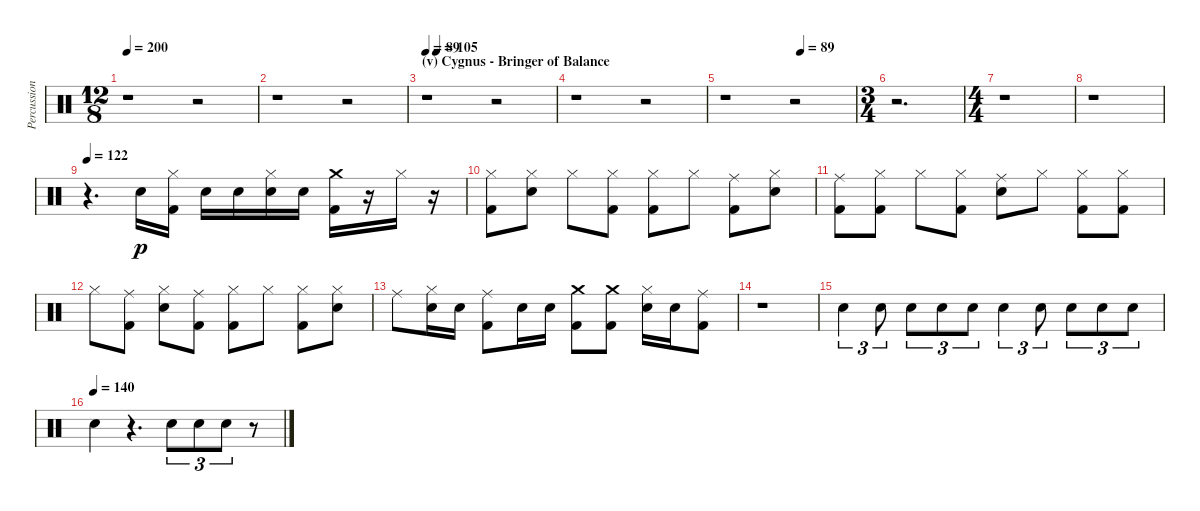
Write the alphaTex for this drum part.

\track ("Percussion" "Percussion") {instrument percussion}
\staff {score}
\articulation defaults
\ts (12 8)
\tempo 200
\clef neutral
\ks c
r.1{dy f} r.2 |
r.1 r.2 |
\section ("" "(v) Cygnus - Bringer of Balance")
\tempo 89
\tempo (105 0.08333333333333333)
r.1 r.2 |
r.1 r.2 |
\tempo (89 0.5833333333333334)
r.1 r.2 |
\ts (3 4)
r.2{d} |
\ts (4 4)
r.1 |
r.1 |
\tempo 122
r.4{d} "Electric Snare (hit)".16{dy p} ("Kick (hit) 2" "Hi-Hat (closed)").16 "Electric Snare (hit)".16 "Electric Snare (hit)".16 ("Electric Snare (hit)" "Hi-Hat (closed)").16 "Electric Snare (hit)".16 ("Kick (hit) 2" "Crash medium (hit)").16 r.16 "Hi-Hat (closed)".16 r.16 |
("Kick (hit) 2" "Hi-Hat (closed)").8 ("Electric Snare (hit)" "Hi-Hat (closed)").8 "Hi-Hat (closed)".8 ("Kick (hit) 2" "Hi-Hat (closed)").8 ("Kick (hit) 2" "Hi-Hat (closed)").8 "Hi-Hat (closed)".8 ("Kick (hit) 2" "Ride (middle)").8 ("Electric Snare (hit)" "Hi-Hat (closed)").8 |
("Kick (hit) 2" "Ride (middle)").8 ("Kick (hit) 2" "Hi-Hat (closed)").8 "Hi-Hat (closed)".8 ("Kick (hit) 2" "Hi-Hat (closed)").8 ("Electric Snare (hit)" "Ride (middle)").8 "Hi-Hat (closed)".8 ("Kick (hit) 2" "Hi-Hat (closed)").8 ("Kick (hit) 2" "Hi-Hat (closed)").8 |
"Hi-Hat (closed)".8 ("Kick (hit) 2" "Ride (middle)").8 ("Electric Snare (hit)" "Hi-Hat (closed)").8 ("Kick (hit) 2" "Ride (middle)").8 ("Kick (hit) 2" "Hi-Hat (closed)").8 "Hi-Hat (closed)".8 ("Kick (hit) 2" "Hi-Hat (closed)").8 ("Electric Snare (hit)" "Hi-Hat (closed)").8 |
"Ride (middle)".8 ("Electric Snare (hit)" "Hi-Hat (closed)").16 "Electric Snare (hit)".16 ("Kick (hit) 2" "Ride (middle)").8 "Electric Snare (hit)".16 "Electric Snare (hit)".16 ("Kick (hit) 2" "Crash medium (hit)").8 ("Kick (hit) 2" "Crash medium (hit)").8 ("Electric Snare (hit)" "Hi-Hat (closed)").16 "Electric Snare (hit)".16 ("Kick (hit) 2" "Ride (middle)").8 |
r.1 |
"Electric Snare (hit)".4{tu (3 2)} "Electric Snare (hit)".8{tu (3 2)} "Electric Snare (hit)".8{tu (3 2)} "Electric Snare (hit)".8{tu (3 2)} "Electric Snare (hit)".8{tu (3 2)} "Electric Snare (hit)".4{tu (3 2)} "Electric Snare (hit)".8{tu (3 2)} "Electric Snare (hit)".8{tu (3 2)} "Electric Snare (hit)".8{tu (3 2)} "Electric Snare (hit)".8{tu (3 2)} |
\tempo (140)
"Electric Snare (hit)".4 r.4{d} "Electric Snare (hit)".8{tu (3 2)} "Electric Snare (hit)".8{tu (3 2)} "Electric Snare (hit)".8{tu (3 2)} r.8
